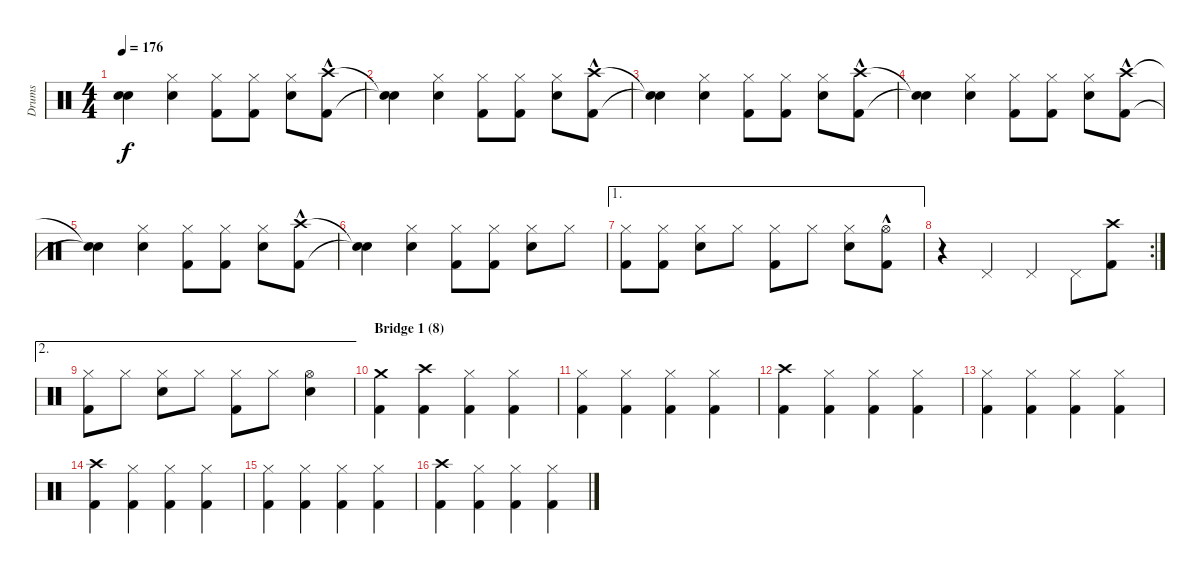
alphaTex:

\track ("Drums" "Drums") {instrument percussion}
\staff {score}
\articulation defaults
\ts (4 4)
\tempo 176
\clef neutral
\ks c
("Snare (hit)"{t} "Snare (hit)"{t}).4{dy f} ("Hi-Hat (closed)" "Snare (hit) 2").4 ("Hi-Hat (closed)" "Kick (hit) 2").8 ("Hi-Hat (closed)" "Kick (hit) 2").8 ("Hi-Hat (closed)" "Snare (hit) 2").8 ("Crash high (hit)"{hac} "Kick (hit) 2").8 |
("Snare (hit)"{t} "Snare (hit)"{t}).4 ("Hi-Hat (closed)" "Snare (hit) 2").4 ("Hi-Hat (closed)" "Kick (hit) 2").8 ("Hi-Hat (closed)" "Kick (hit) 2").8 ("Hi-Hat (closed)" "Snare (hit) 2").8 ("Crash high (hit)"{hac} "Kick (hit) 2").8 |
("Snare (hit)"{t} "Snare (hit)"{t}).4 ("Hi-Hat (closed)" "Snare (hit) 2").4 ("Hi-Hat (closed)" "Kick (hit) 2").8 ("Hi-Hat (closed)" "Kick (hit) 2").8 ("Hi-Hat (closed)" "Snare (hit) 2").8 ("Crash high (hit)"{hac} "Kick (hit) 2").8 |
("Snare (hit)"{t} "Snare (hit)"{t}).4 ("Hi-Hat (closed)" "Snare (hit) 2").4 ("Hi-Hat (closed)" "Kick (hit) 2").8 ("Hi-Hat (closed)" "Kick (hit) 2").8 ("Hi-Hat (closed)" "Snare (hit) 2").8 ("Crash high (hit)"{hac} "Kick (hit) 2").8 |
("Snare (hit)"{t} "Snare (hit)"{t}).4 ("Hi-Hat (closed)" "Snare (hit) 2").4 ("Hi-Hat (closed)" "Kick (hit) 2").8 ("Hi-Hat (closed)" "Kick (hit) 2").8 ("Hi-Hat (closed)" "Snare (hit) 2").8 ("Crash high (hit)"{hac} "Kick (hit) 2").8 |
("Snare (hit)"{t} "Snare (hit)"{t}).4 ("Hi-Hat (closed)" "Snare (hit) 2").4 ("Hi-Hat (closed)" "Kick (hit) 2").8 ("Hi-Hat (closed)" "Kick (hit) 2").8 ("Hi-Hat (closed)" "Snare (hit) 2").8 "Hi-Hat (closed)".8 |
\ae 1
("Hi-Hat (closed)" "Kick (hit) 2").8 ("Hi-Hat (closed)" "Kick (hit) 2").8 ("Hi-Hat (closed)" "Snare (hit) 2").8 "Hi-Hat (closed)".8 ("Hi-Hat (closed)" "Kick (hit) 2").8 "Hi-Hat (closed)".8 ("Hi-Hat (closed)" "Snare (hit) 2").8 ("Hi-Hat (open)"{hac} "Kick (hit) 2").8 |
\rc 2
r.4 "Pedal Hi-Hat (hit)".4 "Pedal Hi-Hat (hit)".4 "Pedal Hi-Hat (hit)".8 ("Crash high (hit)" "Kick (hit) 2").8 |
\ae 2
("Hi-Hat (closed)" "Kick (hit) 2").8 "Hi-Hat (closed)".8 ("Hi-Hat (closed)" "Snare (hit) 2").8 "Hi-Hat (closed)".8 ("Hi-Hat (closed)" "Kick (hit) 2").8 "Hi-Hat (closed)".8 ("Hi-Hat (open)" "Snare (hit) 2").4 |
\section ("" "Bridge 1 (8)")
("Crash medium (hit)" "Kick (hit) 2").4 ("Crash high (hit)" "Kick (hit) 2").4 ("Hi-Hat (closed)" "Kick (hit) 2").4 ("Hi-Hat (closed)" "Kick (hit) 2").4 |
("Hi-Hat (closed)" "Kick (hit) 2").4 ("Hi-Hat (closed)" "Kick (hit) 2").4 ("Hi-Hat (closed)" "Kick (hit) 2").4 ("Hi-Hat (closed)" "Kick (hit) 2").4 |
("Crash high (hit)" "Kick (hit) 2").4 ("Hi-Hat (closed)" "Kick (hit) 2").4 ("Hi-Hat (closed)" "Kick (hit) 2").4 ("Hi-Hat (closed)" "Kick (hit) 2").4 |
("Hi-Hat (closed)" "Kick (hit) 2").4 ("Hi-Hat (closed)" "Kick (hit) 2").4 ("Hi-Hat (closed)" "Kick (hit) 2").4 ("Hi-Hat (closed)" "Kick (hit) 2").4 |
("Crash high (hit)" "Kick (hit) 2").4 ("Hi-Hat (closed)" "Kick (hit) 2").4 ("Hi-Hat (closed)" "Kick (hit) 2").4 ("Hi-Hat (closed)" "Kick (hit) 2").4 |
("Hi-Hat (closed)" "Kick (hit) 2").4 ("Hi-Hat (closed)" "Kick (hit) 2").4 ("Hi-Hat (closed)" "Kick (hit) 2").4 ("Hi-Hat (closed)" "Kick (hit) 2").4 |
("Crash high (hit)" "Kick (hit) 2").4 ("Hi-Hat (closed)" "Kick (hit) 2").4 ("Hi-Hat (closed)" "Kick (hit) 2").4 ("Hi-Hat (closed)" "Kick (hit) 2").4
